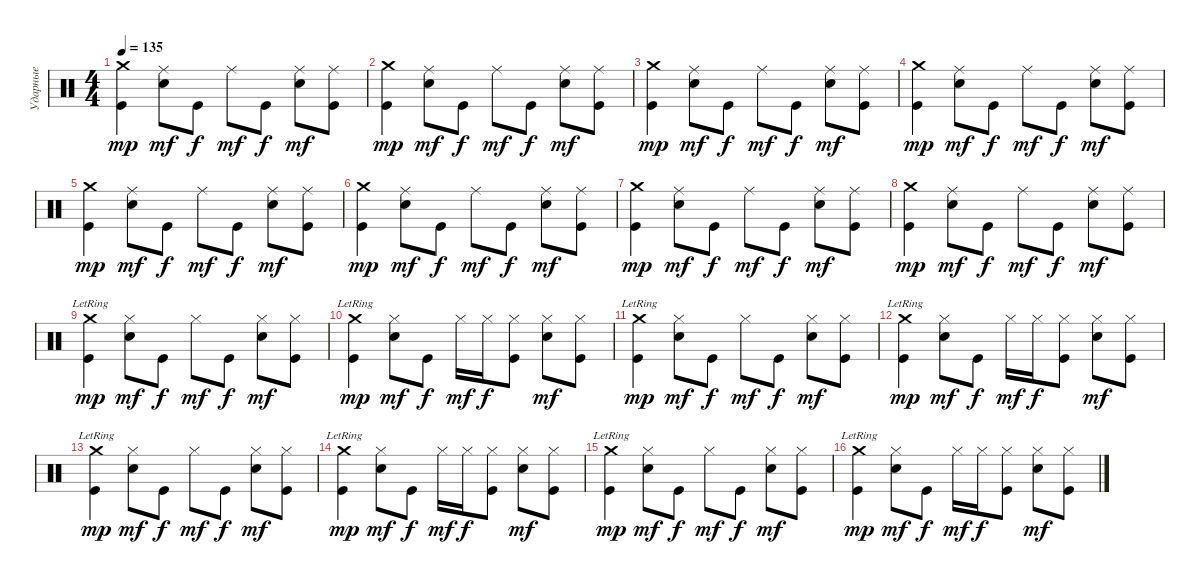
\track ("Ударные" "Ударные") {instrument percussion}
\staff {score}
\articulation defaults
\ts (4 4)
\tempo 135
\clef neutral
\ks c
("Crash medium (hit)" "Kick (hit)").4{dy mp} ("Ride (middle)" "Electric Snare (hit)").8{dy mf} "Kick (hit)".8{dy f} "Ride (middle)".8{dy mf} "Kick (hit)".8{dy f} ("Ride (middle)" "Electric Snare (hit)").8{dy mf} ("Ride (middle)" "Kick (hit)").8 |
("Crash medium (hit)" "Kick (hit)").4{dy mp} ("Ride (middle)" "Electric Snare (hit)").8{dy mf} "Kick (hit)".8{dy f} "Ride (middle)".8{dy mf} "Kick (hit)".8{dy f} ("Ride (middle)" "Electric Snare (hit)").8{dy mf} ("Ride (middle)" "Kick (hit)").8 |
("Crash medium (hit)" "Kick (hit)").4{dy mp} ("Ride (middle)" "Electric Snare (hit)").8{dy mf} "Kick (hit)".8{dy f} "Ride (middle)".8{dy mf} "Kick (hit)".8{dy f} ("Ride (middle)" "Electric Snare (hit)").8{dy mf} ("Ride (middle)" "Kick (hit)").8 |
("Crash medium (hit)" "Kick (hit)").4{dy mp} ("Ride (middle)" "Electric Snare (hit)").8{dy mf} "Kick (hit)".8{dy f} "Ride (middle)".8{dy mf} "Kick (hit)".8{dy f} ("Ride (middle)" "Electric Snare (hit)").8{dy mf} ("Ride (middle)" "Kick (hit)").8 |
("Crash medium (hit)" "Kick (hit)").4{dy mp} ("Ride (middle)" "Electric Snare (hit)").8{dy mf} "Kick (hit)".8{dy f} "Ride (middle)".8{dy mf} "Kick (hit)".8{dy f} ("Ride (middle)" "Electric Snare (hit)").8{dy mf} ("Ride (middle)" "Kick (hit)").8 |
("Crash medium (hit)" "Kick (hit)").4{dy mp} ("Ride (middle)" "Electric Snare (hit)").8{dy mf} "Kick (hit)".8{dy f} "Ride (middle)".8{dy mf} "Kick (hit)".8{dy f} ("Ride (middle)" "Electric Snare (hit)").8{dy mf} ("Ride (middle)" "Kick (hit)").8 |
("Crash medium (hit)" "Kick (hit)").4{dy mp} ("Ride (middle)" "Electric Snare (hit)").8{dy mf} "Kick (hit)".8{dy f} "Ride (middle)".8{dy mf} "Kick (hit)".8{dy f} ("Ride (middle)" "Electric Snare (hit)").8{dy mf} ("Ride (middle)" "Kick (hit)").8 |
("Crash medium (hit)" "Kick (hit)").4{dy mp} ("Ride (middle)" "Electric Snare (hit)").8{dy mf} "Kick (hit)".8{dy f} "Ride (middle)".8{dy mf} "Kick (hit)".8{dy f} ("Ride (middle)" "Electric Snare (hit)").8{dy mf} ("Ride (middle)" "Kick (hit)").8 |
("Crash medium (hit)"{lr} "Kick (hit)").4{dy mp} ("Hi-Hat (closed)" "Electric Snare (hit)").8{dy mf} "Kick (hit)".8{dy f} "Hi-Hat (closed)".8{dy mf} "Kick (hit)".8{dy f} ("Hi-Hat (closed)" "Electric Snare (hit)").8{dy mf} ("Hi-Hat (closed)" "Kick (hit)").8 |
("Crash medium (hit)"{lr} "Kick (hit)").4{dy mp} ("Hi-Hat (closed)" "Electric Snare (hit)").8{dy mf} "Kick (hit)".8{dy f} "Hi-Hat (closed)".16{dy mf} "Hi-Hat (closed)".16{dy f} ("Hi-Hat (closed)" "Kick (hit)").8 ("Hi-Hat (closed)" "Electric Snare (hit)").8{dy mf} ("Hi-Hat (closed)" "Kick (hit)").8 |
("Crash medium (hit)"{lr} "Kick (hit)").4{dy mp} ("Hi-Hat (closed)" "Electric Snare (hit)").8{dy mf} "Kick (hit)".8{dy f} "Hi-Hat (closed)".8{dy mf} "Kick (hit)".8{dy f} ("Hi-Hat (closed)" "Electric Snare (hit)").8{dy mf} ("Hi-Hat (closed)" "Kick (hit)").8 |
("Crash medium (hit)"{lr} "Kick (hit)").4{dy mp} ("Hi-Hat (closed)" "Electric Snare (hit)").8{dy mf} "Kick (hit)".8{dy f} "Hi-Hat (closed)".16{dy mf} "Hi-Hat (closed)".16{dy f} ("Hi-Hat (closed)" "Kick (hit)").8 ("Hi-Hat (closed)" "Electric Snare (hit)").8{dy mf} ("Hi-Hat (closed)" "Kick (hit)").8 |
("Crash medium (hit)"{lr} "Kick (hit)").4{dy mp} ("Hi-Hat (closed)" "Electric Snare (hit)").8{dy mf} "Kick (hit)".8{dy f} "Hi-Hat (closed)".8{dy mf} "Kick (hit)".8{dy f} ("Hi-Hat (closed)" "Electric Snare (hit)").8{dy mf} ("Hi-Hat (closed)" "Kick (hit)").8 |
("Crash medium (hit)"{lr} "Kick (hit)").4{dy mp} ("Hi-Hat (closed)" "Electric Snare (hit)").8{dy mf} "Kick (hit)".8{dy f} "Hi-Hat (closed)".16{dy mf} "Hi-Hat (closed)".16{dy f} ("Hi-Hat (closed)" "Kick (hit)").8 ("Hi-Hat (closed)" "Electric Snare (hit)").8{dy mf} ("Hi-Hat (closed)" "Kick (hit)").8 |
("Crash medium (hit)"{lr} "Kick (hit)").4{dy mp} ("Hi-Hat (closed)" "Electric Snare (hit)").8{dy mf} "Kick (hit)".8{dy f} "Hi-Hat (closed)".8{dy mf} "Kick (hit)".8{dy f} ("Hi-Hat (closed)" "Electric Snare (hit)").8{dy mf} ("Hi-Hat (closed)" "Kick (hit)").8 |
("Crash medium (hit)"{lr} "Kick (hit)").4{dy mp} ("Hi-Hat (closed)" "Electric Snare (hit)").8{dy mf} "Kick (hit)".8{dy f} "Hi-Hat (closed)".16{dy mf} "Hi-Hat (closed)".16{dy f} ("Hi-Hat (closed)" "Kick (hit)").8 ("Hi-Hat (closed)" "Electric Snare (hit)").8{dy mf} ("Hi-Hat (closed)" "Kick (hit)").8
